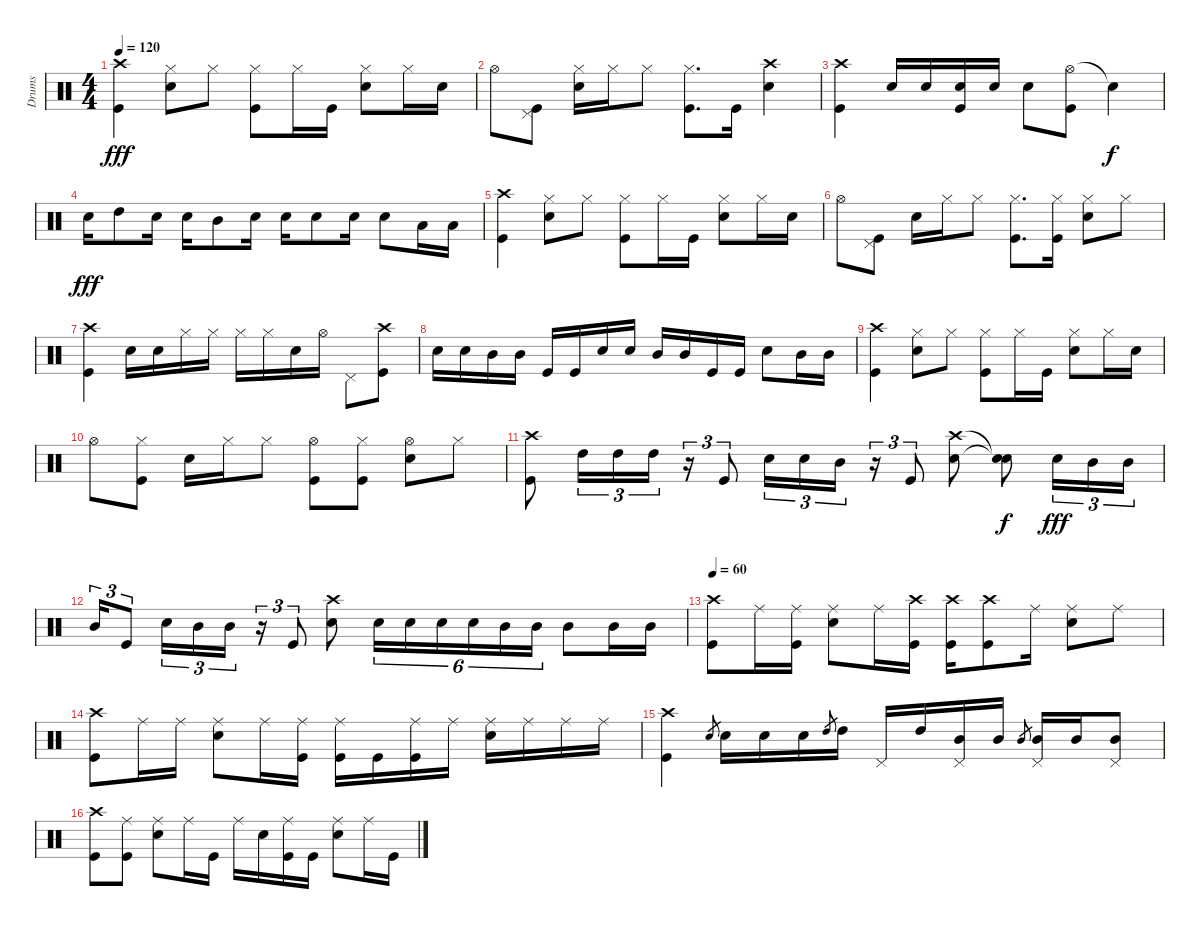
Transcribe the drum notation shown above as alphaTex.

\track ("Drums" "Drums") {instrument percussion}
\staff {score}
\articulation defaults
\ts (4 4)
\tempo 120
\clef neutral
\ks c
("Crash high (hit)" "Kick (hit)").4{dy fff} ("Hi-Hat (closed)" "Snare (hit) 2").8 "Hi-Hat (closed)".8 ("Hi-Hat (closed)" "Kick (hit)").8 "Hi-Hat (closed)".16 "Kick (hit)".16 ("Hi-Hat (closed)" "Snare (hit) 2").8 "Hi-Hat (closed)".16 "Snare (hit) 2".16 |
"Hi-Hat (open)".8 ("Pedal Hi-Hat (hit)" "Kick (hit)").8 ("Hi-Hat (closed)" "Snare (hit) 2").16 "Hi-Hat (closed)".16 "Hi-Hat (closed)".8 ("Hi-Hat (closed)" "Kick (hit)").8{d} "Kick (hit)".16 ("Crash high (hit)" "Snare (hit) 2").4 |
("Crash high (hit)" "Kick (hit)").4 "Snare (hit) 2".16 "Snare (hit) 2".16 ("Snare (hit) 2" "Kick (hit)").16 "Snare (hit) 2".16 "Snare (hit) 2".8 ("Hi-Hat (open)" "Kick (hit)").8 "Snare (hit)"{t}.4{dy f} |
"Snare (hit) 2".16{dy fff} "High Tom (hit)".8 "Snare (hit) 2".16 "Snare (hit) 2".16 "Mid Tom (hit)".8 "Snare (hit) 2".16 "Snare (hit) 2".16 "Snare (hit) 2".8 "Snare (hit) 2".16 "Snare (hit) 2".8 "Low Tom (hit)".16 "Low Tom (hit)".16 |
("Crash high (hit)" "Kick (hit)").4 ("Hi-Hat (closed)" "Snare (hit) 2").8 "Hi-Hat (closed)".8 ("Hi-Hat (closed)" "Kick (hit)").8 "Hi-Hat (closed)".16 "Kick (hit)".16 ("Hi-Hat (closed)" "Snare (hit) 2").8 "Hi-Hat (closed)".16 "Snare (hit) 2".16 |
"Hi-Hat (open)".8 ("Pedal Hi-Hat (hit)" "Kick (hit)").8 "Snare (hit) 2".16 "Hi-Hat (closed)".16 "Hi-Hat (closed)".8 ("Hi-Hat (closed)" "Kick (hit)").8{d} ("Hi-Hat (closed)" "Kick (hit)").16 ("Hi-Hat (closed)" "Snare (hit) 2").8 "Hi-Hat (closed)".8 |
("Crash high (hit)" "Kick (hit)").4 "Snare (hit) 2".16 "Snare (hit) 2".16 "Hi-Hat (closed)".16 "Hi-Hat (closed)".16 "Hi-Hat (closed)".16 "Hi-Hat (closed)".16 "Snare (hit) 2".16 "Hi-Hat (open)".16 "Pedal Hi-Hat (hit)".8 ("Crash high (hit)" "Kick (hit)").8 |
"Snare (hit) 2".16 "Snare (hit) 2".16 "Mid Tom (hit)".16 "Mid Tom (hit)".16 "Kick (hit)".16 "Kick (hit)".16 "Snare (hit) 2".16 "Snare (hit) 2".16 "Mid Tom (hit)".16 "Mid Tom (hit)".16 "Kick (hit)".16 "Kick (hit)".16 "Snare (hit) 2".8 "Mid Tom (hit)".16 "Mid Tom (hit)".16 |
("Crash high (hit)" "Kick (hit)").4 ("Hi-Hat (closed)" "Snare (hit) 2").8 "Hi-Hat (closed)".8 ("Hi-Hat (closed)" "Kick (hit)").8 "Hi-Hat (closed)".16 "Kick (hit)".16 ("Hi-Hat (closed)" "Snare (hit) 2").8 "Hi-Hat (closed)".16 "Snare (hit) 2".16 |
"Hi-Hat (open)".8 ("Hi-Hat (closed)" "Kick (hit)").8 "Snare (hit) 2".16 "Hi-Hat (closed)".16 "Hi-Hat (closed)".8 ("Hi-Hat (open)" "Kick (hit)").8 ("Hi-Hat (closed)" "Kick (hit)").8 ("Hi-Hat (open)" "Snare (hit) 2").8 "Hi-Hat (closed)".8 |
("Crash high (hit)" "Kick (hit)").8 "High Tom (hit)".16{tu (3 2)} "High Tom (hit)".16{tu (3 2)} "High Tom (hit)".16{tu (3 2)} r.16{tu (3 2)} "Kick (hit)".8{tu (3 2)} "Snare (hit) 2".16{tu (3 2)} "Snare (hit) 2".16{tu (3 2)} "Mid Tom (hit)".16{tu (3 2)} r.16{tu (3 2)} "Kick (hit)".8{tu (3 2)} ("Crash high (hit)" "Snare (hit) 2").8 ("Snare (hit)"{t} "Snare (hit)"{t}).8{dy f} "Snare (hit) 2".16{tu (3 2) dy fff} "Mid Tom (hit)".16{tu (3 2)} "Mid Tom (hit)".16{tu (3 2)} |
"Mid Tom (hit)".16{tu (3 2)} "Kick (hit)".8{tu (3 2)} "Snare (hit) 2".16{tu (3 2)} "Mid Tom (hit)".16{tu (3 2)} "Mid Tom (hit)".16{tu (3 2)} r.16{tu (3 2)} "Kick (hit)".8{tu (3 2)} ("Crash high (hit)" "Snare (hit) 2").8 "Snare (hit) 2".16{tu (6 4)} "Snare (hit) 2".16{tu (6 4)} "Snare (hit) 2".16{tu (6 4)} "Snare (hit) 2".16{tu (6 4)} "Mid Tom (hit)".16{tu (6 4)} "Mid Tom (hit)".16{tu (6 4)} "Mid Tom (hit)".8 "Mid Tom (hit)".16 "Mid Tom (hit)".16 |
\tempo 60
("Crash high (hit)" "Kick (hit)").8 "Ride (middle)".16 ("Ride (middle)" "Kick (hit)").16 ("Ride (middle)" "Snare (hit) 2").8 "Ride (middle)".16 ("Crash high (hit)" "Kick (hit)").16 ("Crash high (hit)" "Kick (hit)").16 ("Crash high (hit)" "Kick (hit)").8 "Ride (middle)".16 ("Ride (middle)" "Snare (hit) 2").8 "Ride (middle)".8 |
("Crash high (hit)" "Kick (hit)").8 "Ride (middle)".16 "Ride (middle)".16 ("Ride (middle)" "Snare (hit) 2").8 "Ride (middle)".16 ("Ride (middle)" "Kick (hit)").16 ("Ride (middle)" "Kick (hit)").16 "Kick (hit)".16 ("Ride (middle)" "Kick (hit)").16 "Ride (middle)".16 ("Ride (middle)" "Snare (hit) 2").16 "Ride (middle)".16 "Ride (middle)".16 "Ride (middle)".16 |
("Crash high (hit)" "Kick (hit)").4 "Snare (hit) 2".8{gr} "Snare (hit) 2".16 "Snare (hit) 2".16 "Snare (hit) 2".16 "High Tom (hit)".8{gr} "High Tom (hit)".16 "Pedal Hi-Hat (hit)".16 "High Tom (hit)".16 ("Pedal Hi-Hat (hit)" "Mid Tom (hit)").16 "Mid Tom (hit)".16 "Mid Tom (hit)".8{gr} ("Pedal Hi-Hat (hit)" "Mid Tom (hit)").16 "Mid Tom (hit)".16 ("Pedal Hi-Hat (hit)" "Mid Tom (hit)").8 |
("Crash high (hit)" "Kick (hit)").8 ("Ride (middle)" "Kick (hit)").8 ("Ride (middle)" "Snare (hit) 2").8 "Ride (middle)".16 "Kick (hit)".16 "Ride (middle)".16 "Snare (hit) 2".16 ("Ride (middle)" "Kick (hit)").16 "Kick (hit)".16 ("Ride (middle)" "Snare (hit) 2").8 "Ride (middle)".16 "Kick (hit)".16
